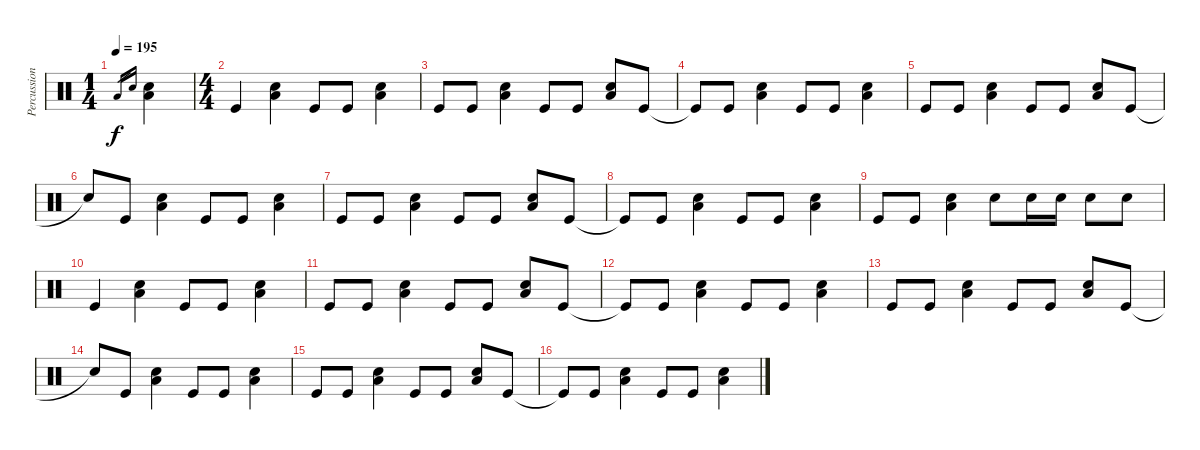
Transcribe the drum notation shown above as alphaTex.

\track ("Percussion" "Percussion") {instrument percussion}
\staff {score}
\articulation defaults
\ts (1 4)
\tempo 195
\clef neutral
\ks c "Low Tom (hit)".16{gr dy f} "Snare (hit) 2".16{gr}
("Low Tom (hit)" "Snare (hit) 2").4 |
\ts (4 4)
"Kick (hit)".4 ("Low Tom (hit)" "Snare (hit) 2").4 "Kick (hit)".8 "Kick (hit)".8 ("Low Tom (hit)" "Snare (hit) 2").4 |
"Kick (hit)".8 "Kick (hit)".8 ("Low Tom (hit)" "Snare (hit) 2").4 "Kick (hit)".8 "Kick (hit)".8 ("Low Tom (hit)" "Snare (hit) 2").8 "Kick (hit)".8 |
"Kick (hit)"{t}.8 "Kick (hit)".8 ("Low Tom (hit)" "Snare (hit) 2").4 "Kick (hit)".8 "Kick (hit)".8 ("Low Tom (hit)" "Snare (hit) 2").4 |
"Kick (hit)".8 "Kick (hit)".8 ("Low Tom (hit)" "Snare (hit) 2").4 "Kick (hit)".8 "Kick (hit)".8 ("Low Tom (hit)" "Snare (hit) 2").8 "Kick (hit)".8 |
"Snare (hit)"{t}.8 "Kick (hit)".8 ("Low Tom (hit)" "Snare (hit) 2").4 "Kick (hit)".8 "Kick (hit)".8 ("Low Tom (hit)" "Snare (hit) 2").4 |
"Kick (hit)".8 "Kick (hit)".8 ("Low Tom (hit)" "Snare (hit) 2").4 "Kick (hit)".8 "Kick (hit)".8 ("Low Tom (hit)" "Snare (hit) 2").8 "Kick (hit)".8 |
"Kick (hit)"{t}.8 "Kick (hit)".8 ("Low Tom (hit)" "Snare (hit) 2").4 "Kick (hit)".8 "Kick (hit)".8 ("Low Tom (hit)" "Snare (hit) 2").4 |
"Kick (hit)".8 "Kick (hit)".8 ("Low Tom (hit)" "Snare (hit) 2").4 "Snare (hit) 2".8 "Snare (hit) 2".16 "Snare (hit) 2".16 "Snare (hit) 2".8 "Snare (hit) 2".8 |
"Kick (hit)".4 ("Low Tom (hit)" "Snare (hit) 2").4 "Kick (hit)".8 "Kick (hit)".8 ("Low Tom (hit)" "Snare (hit) 2").4 |
"Kick (hit)".8 "Kick (hit)".8 ("Low Tom (hit)" "Snare (hit) 2").4 "Kick (hit)".8 "Kick (hit)".8 ("Low Tom (hit)" "Snare (hit) 2").8 "Kick (hit)".8 |
"Kick (hit)"{t}.8 "Kick (hit)".8 ("Low Tom (hit)" "Snare (hit) 2").4 "Kick (hit)".8 "Kick (hit)".8 ("Low Tom (hit)" "Snare (hit) 2").4 |
"Kick (hit)".8 "Kick (hit)".8 ("Low Tom (hit)" "Snare (hit) 2").4 "Kick (hit)".8 "Kick (hit)".8 ("Low Tom (hit)" "Snare (hit) 2").8 "Kick (hit)".8 |
"Snare (hit)"{t}.8 "Kick (hit)".8 ("Low Tom (hit)" "Snare (hit) 2").4 "Kick (hit)".8 "Kick (hit)".8 ("Low Tom (hit)" "Snare (hit) 2").4 |
"Kick (hit)".8 "Kick (hit)".8 ("Low Tom (hit)" "Snare (hit) 2").4 "Kick (hit)".8 "Kick (hit)".8 ("Low Tom (hit)" "Snare (hit) 2").8 "Kick (hit)".8 |
"Kick (hit)"{t}.8 "Kick (hit)".8 ("Low Tom (hit)" "Snare (hit) 2").4 "Kick (hit)".8 "Kick (hit)".8 ("Low Tom (hit)" "Snare (hit) 2").4
